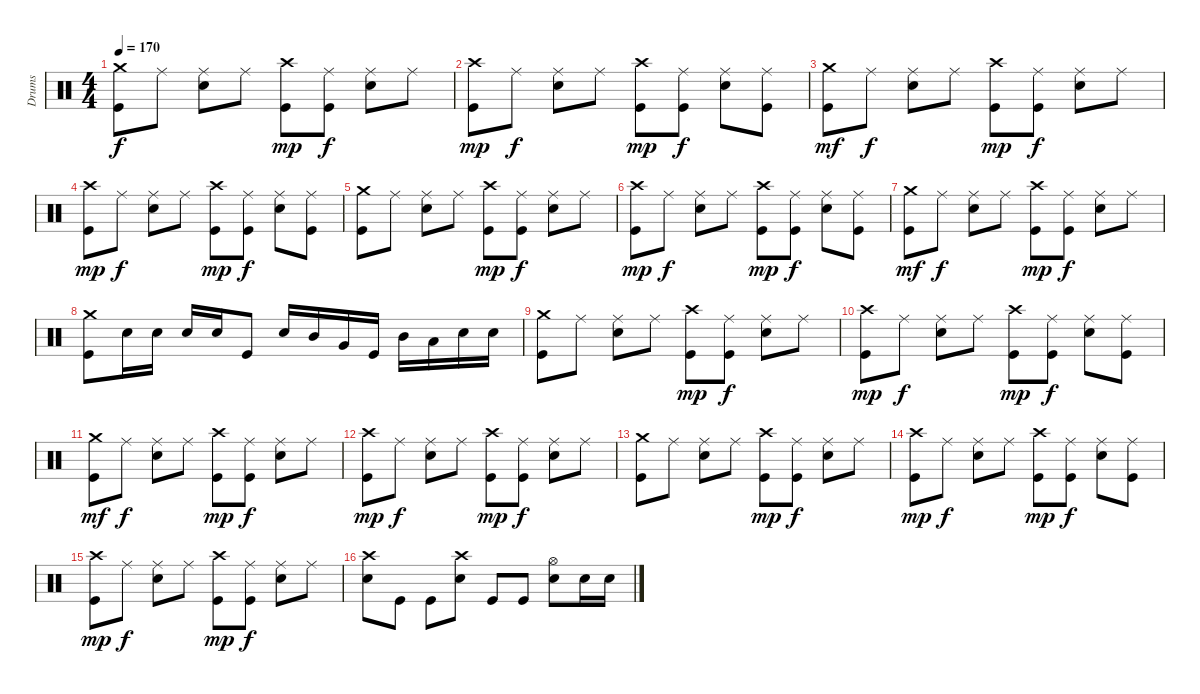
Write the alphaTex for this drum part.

\track ("Drums" "Drums") {instrument percussion}
\staff {score}
\articulation defaults
\ts (4 4)
\tempo 170
\clef neutral
\ks c
("Crash medium (hit)" "Kick (hit)").8{dy f} "Ride (middle)".8 ("Ride (middle)" "Snare (hit) 2").8 "Ride (middle)".8 ("Crash high (hit)" "Kick (hit)").8{dy mp} ("Ride (middle)" "Kick (hit)").8{dy f} ("Ride (middle)" "Snare (hit) 2").8 "Ride (middle)".8 |
("Crash high (hit)" "Kick (hit)").8{dy mp} "Ride (middle)".8{dy f} ("Ride (middle)" "Snare (hit) 2").8 "Ride (middle)".8 ("Crash high (hit)" "Kick (hit)").8{dy mp} ("Ride (middle)" "Kick (hit)").8{dy f} ("Ride (middle)" "Snare (hit) 2").8 ("Ride (middle)" "Kick (hit)").8 |
("Crash medium (hit)" "Kick (hit)").8{dy mf} "Ride (middle)".8{dy f} ("Ride (middle)" "Snare (hit) 2").8 "Ride (middle)".8 ("Crash high (hit)" "Kick (hit)").8{dy mp} ("Ride (middle)" "Kick (hit)").8{dy f} ("Ride (middle)" "Snare (hit) 2").8 "Ride (middle)".8 |
("Crash high (hit)" "Kick (hit)").8{dy mp} "Ride (middle)".8{dy f} ("Ride (middle)" "Snare (hit) 2").8 "Ride (middle)".8 ("Crash high (hit)" "Kick (hit)").8{dy mp} ("Ride (middle)" "Kick (hit)").8{dy f} ("Ride (middle)" "Snare (hit) 2").8 ("Ride (middle)" "Kick (hit)").8 |
("Crash medium (hit)" "Kick (hit)").8 "Ride (middle)".8 ("Ride (middle)" "Snare (hit) 2").8 "Ride (middle)".8 ("Crash high (hit)" "Kick (hit)").8{dy mp} ("Ride (middle)" "Kick (hit)").8{dy f} ("Ride (middle)" "Snare (hit) 2").8 "Ride (middle)".8 |
("Crash high (hit)" "Kick (hit)").8{dy mp} "Ride (middle)".8{dy f} ("Ride (middle)" "Snare (hit) 2").8 "Ride (middle)".8 ("Crash high (hit)" "Kick (hit)").8{dy mp} ("Ride (middle)" "Kick (hit)").8{dy f} ("Ride (middle)" "Snare (hit) 2").8 ("Ride (middle)" "Kick (hit)").8 |
("Crash medium (hit)" "Kick (hit)").8{dy mf} "Ride (middle)".8{dy f} ("Ride (middle)" "Snare (hit) 2").8 "Ride (middle)".8 ("Crash high (hit)" "Kick (hit)").8{dy mp} ("Ride (middle)" "Kick (hit)").8{dy f} ("Ride (middle)" "Snare (hit) 2").8 "Ride (middle)".8 |
("Crash medium (hit)" "Kick (hit)").8 "Snare (hit) 2".16 "Snare (hit) 2".16 "Snare (hit) 2".16 "Snare (hit) 2".16 "Kick (hit)".8 "Snare (hit) 2".16 "Mid Tom (hit)".16 "Very Low Tom (hit)".16 "Kick (hit)".16 "Mid Tom (hit)".16 "Low Tom (hit)".16 "Snare (hit) 2".16 "Snare (hit) 2".16 |
("Crash medium (hit)" "Kick (hit)").8 "Ride (middle)".8 ("Ride (middle)" "Snare (hit) 2").8 "Ride (middle)".8 ("Crash high (hit)" "Kick (hit)").8{dy mp} ("Ride (middle)" "Kick (hit)").8{dy f} ("Ride (middle)" "Snare (hit) 2").8 "Ride (middle)".8 |
("Crash high (hit)" "Kick (hit)").8{dy mp} "Ride (middle)".8{dy f} ("Ride (middle)" "Snare (hit) 2").8 "Ride (middle)".8 ("Crash high (hit)" "Kick (hit)").8{dy mp} ("Ride (middle)" "Kick (hit)").8{dy f} ("Ride (middle)" "Snare (hit) 2").8 ("Ride (middle)" "Kick (hit)").8 |
("Crash medium (hit)" "Kick (hit)").8{dy mf} "Ride (middle)".8{dy f} ("Ride (middle)" "Snare (hit) 2").8 "Ride (middle)".8 ("Crash high (hit)" "Kick (hit)").8{dy mp} ("Ride (middle)" "Kick (hit)").8{dy f} ("Ride (middle)" "Snare (hit) 2").8 "Ride (middle)".8 |
("Crash high (hit)" "Kick (hit)").8{dy mp} "Ride (middle)".8{dy f} ("Ride (middle)" "Snare (hit) 2").8 "Ride (middle)".8 ("Crash high (hit)" "Kick (hit)").8{dy mp} ("Ride (middle)" "Kick (hit)").8{dy f} ("Ride (middle)" "Snare (hit) 2").8 "Ride (middle)".8 |
("Crash medium (hit)" "Kick (hit)").8 "Ride (middle)".8 ("Ride (middle)" "Snare (hit) 2").8 "Ride (middle)".8 ("Crash high (hit)" "Kick (hit)").8{dy mp} ("Ride (middle)" "Kick (hit)").8{dy f} ("Ride (middle)" "Snare (hit) 2").8 "Ride (middle)".8 |
("Crash high (hit)" "Kick (hit)").8{dy mp} "Ride (middle)".8{dy f} ("Ride (middle)" "Snare (hit) 2").8 "Ride (middle)".8 ("Crash high (hit)" "Kick (hit)").8{dy mp} ("Ride (middle)" "Kick (hit)").8{dy f} ("Ride (middle)" "Snare (hit) 2").8 ("Ride (middle)" "Kick (hit)").8 |
("Crash high (hit)" "Kick (hit)").8{dy mp} "Ride (middle)".8{dy f} ("Ride (middle)" "Snare (hit) 2").8 "Ride (middle)".8 ("Crash high (hit)" "Kick (hit)").8{dy mp} ("Ride (middle)" "Kick (hit)").8{dy f} ("Ride (middle)" "Snare (hit) 2").8 "Ride (middle)".8 |
("Crash high (hit)" "Snare (hit) 2").8 "Kick (hit)".8 "Kick (hit)".8 ("Crash high (hit)" "Snare (hit) 2").8 "Kick (hit)".8 "Kick (hit)".8 ("Hi-Hat (open)" "Snare (hit) 2").8 "Snare (hit) 2".16 "Snare (hit) 2".16
